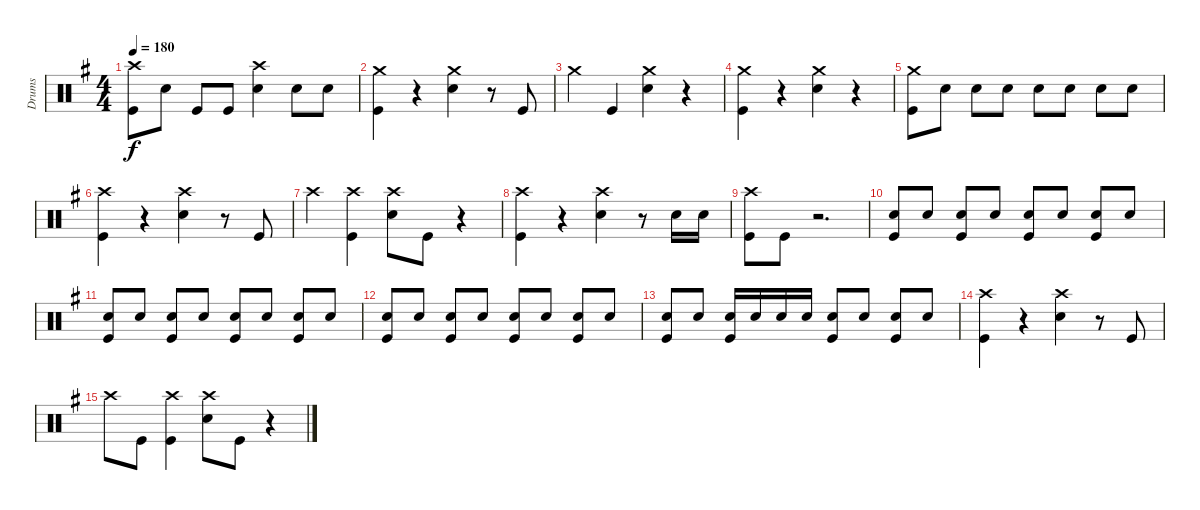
\track ("Drums" "Drums") {instrument percussion}
\staff {score}
\articulation defaults
\ts (4 4)
\tempo 180
\clef neutral
\ks eminor
("Crash high (hit)" "Kick (hit)").8{dy f} "Snare (hit) 2".8 "Kick (hit)".8 "Kick (hit)".8 ("Crash high (hit)" "Snare (hit) 2").4 "Snare (hit) 2".8 "Snare (hit) 2".8 |
("Crash medium (hit)" "Kick (hit)").4 r.4 ("Crash medium (hit)" "Snare (hit) 2").4 r.8 "Kick (hit)".8 |
"Crash medium (hit)".4 "Kick (hit)".4 ("Crash medium (hit)" "Snare (hit) 2").4 r.4 |
("Crash medium (hit)" "Kick (hit)").4 r.4 ("Crash medium (hit)" "Snare (hit) 2").4 r.4 |
("Crash medium (hit)" "Kick (hit)").8 "Snare (hit) 2".8 "Snare (hit) 2".8 "Snare (hit) 2".8 "Snare (hit) 2".8 "Snare (hit) 2".8 "Snare (hit) 2".8 "Snare (hit) 2".8 |
("Crash high (hit)" "Kick (hit)").4 r.4 ("Crash high (hit)" "Snare (hit) 2").4 r.8 "Kick (hit)".8 |
"Crash high (hit)".4 ("Crash high (hit)" "Kick (hit)").4 ("Crash high (hit)" "Snare (hit) 2").8 "Kick (hit)".8 r.4 |
("Crash high (hit)" "Kick (hit)").4 r.4 ("Crash high (hit)" "Snare (hit) 2").4 r.8 "Snare (hit) 2".16 "Snare (hit) 2".16 |
("Crash high (hit)" "Kick (hit)").8 "Kick (hit)".8 r.2{d} |
("Snare (hit) 2" "Kick (hit)").8 "Snare (hit) 2".8 ("Snare (hit) 2" "Kick (hit)").8 "Snare (hit) 2".8 ("Snare (hit) 2" "Kick (hit)").8 "Snare (hit) 2".8 ("Snare (hit) 2" "Kick (hit)").8 "Snare (hit) 2".8 |
("Snare (hit) 2" "Kick (hit)").8 "Snare (hit) 2".8 ("Snare (hit) 2" "Kick (hit)").8 "Snare (hit) 2".8 ("Snare (hit) 2" "Kick (hit)").8 "Snare (hit) 2".8 ("Snare (hit) 2" "Kick (hit)").8 "Snare (hit) 2".8 |
("Snare (hit) 2" "Kick (hit)").8 "Snare (hit) 2".8 ("Snare (hit) 2" "Kick (hit)").8 "Snare (hit) 2".8 ("Snare (hit) 2" "Kick (hit)").8 "Snare (hit) 2".8 ("Snare (hit) 2" "Kick (hit)").8 "Snare (hit) 2".8 |
("Snare (hit) 2" "Kick (hit)").8 "Snare (hit) 2".8 ("Snare (hit) 2" "Kick (hit)").16 "Snare (hit) 2".16 "Snare (hit) 2".16 "Snare (hit) 2".16 ("Snare (hit) 2" "Kick (hit)").8 "Snare (hit) 2".8 ("Snare (hit) 2" "Kick (hit)").8 "Snare (hit) 2".8 |
("Crash high (hit)" "Kick (hit)").4 r.4 ("Crash high (hit)" "Snare (hit) 2").4 r.8 "Kick (hit)".8 |
"Crash high (hit)".8 "Kick (hit)".8 ("Crash high (hit)" "Kick (hit)").4 ("Crash high (hit)" "Snare (hit) 2").8 "Kick (hit)".8 r.4
